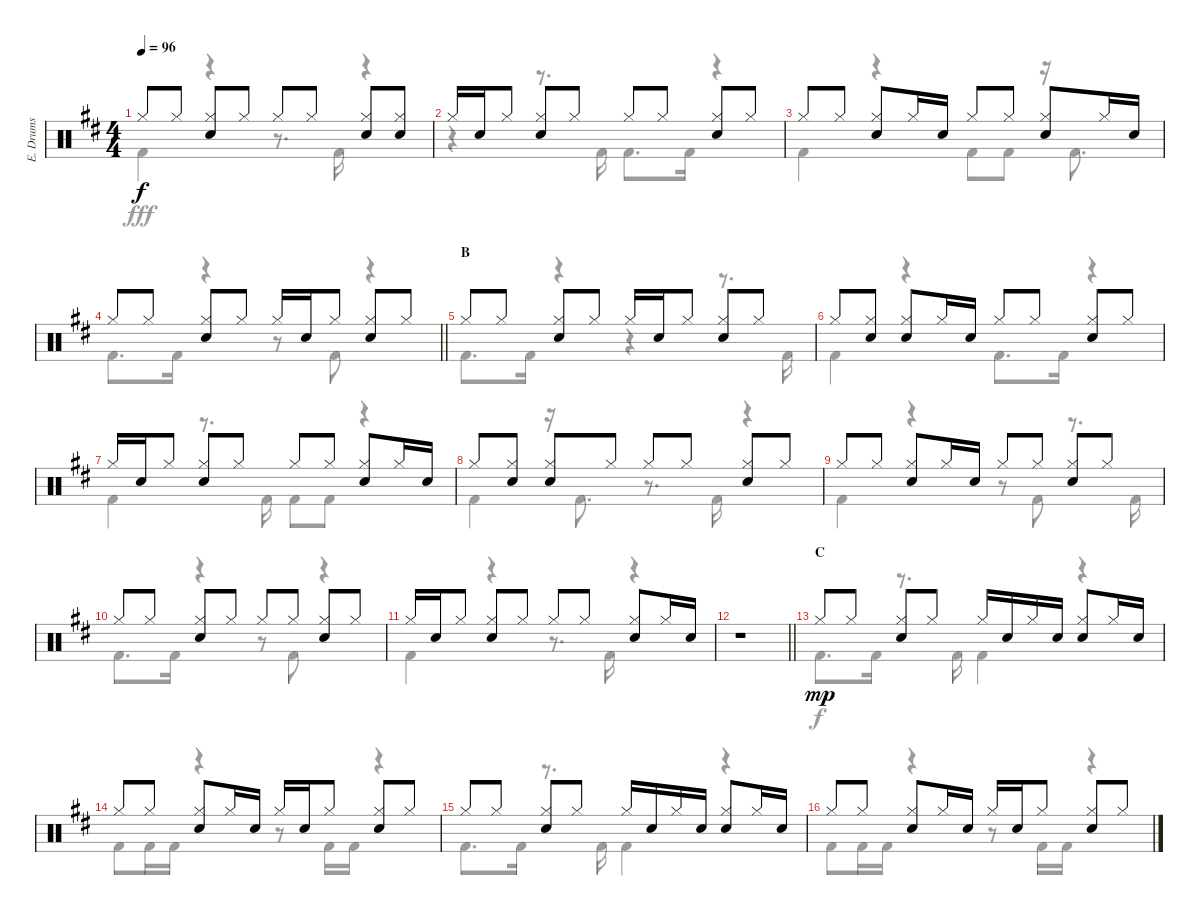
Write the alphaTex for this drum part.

\track ("E. Drums" "E. Drums") {instrument percussion}
\staff {score}
\articulation defaults
\voice
\ts (4 4)
\tempo 96
\clef neutral
\ks d "Hi-Hat (closed)".8{dy f} "Hi-Hat (closed)".8
("Hi-Hat (closed)" "Electric Snare (hit)").8 "Hi-Hat (closed)".8 "Hi-Hat (closed)".8 "Hi-Hat (closed)".8 ("Hi-Hat (closed)" "Electric Snare (hit)").8 ("Hi-Hat (closed)" "Electric Snare (hit)").8 |
"Hi-Hat (closed)".16 "Electric Snare (hit)".16 "Hi-Hat (closed)".8 ("Hi-Hat (closed)" "Electric Snare (hit)").8 "Hi-Hat (closed)".8 "Hi-Hat (closed)".8 "Hi-Hat (closed)".8 ("Hi-Hat (closed)" "Electric Snare (hit)").8 "Hi-Hat (closed)".8 |
"Hi-Hat (closed)".8 "Hi-Hat (closed)".8 ("Hi-Hat (closed)" "Electric Snare (hit)").8 "Hi-Hat (closed)".16 "Electric Snare (hit)".16 "Hi-Hat (closed)".8 "Hi-Hat (closed)".8 ("Hi-Hat (closed)" "Electric Snare (hit)").8 "Hi-Hat (closed)".16 "Electric Snare (hit)".16 |
\barLineRight lightlight "Hi-Hat (closed)".8 "Hi-Hat (closed)".8
("Hi-Hat (closed)" "Electric Snare (hit)").8 "Hi-Hat (closed)".8 "Hi-Hat (closed)".16 "Electric Snare (hit)".16 "Hi-Hat (closed)".8 ("Hi-Hat (closed)" "Electric Snare (hit)").8 "Hi-Hat (closed)".8 |
\section ("" "B")
"Hi-Hat (closed)".8 "Hi-Hat (closed)".8 ("Hi-Hat (closed)" "Electric Snare (hit)").8 "Hi-Hat (closed)".8 "Hi-Hat (closed)".16 "Electric Snare (hit)".16 "Hi-Hat (closed)".8 ("Hi-Hat (closed)" "Electric Snare (hit)").8 "Hi-Hat (closed)".8 |
"Hi-Hat (closed)".8 ("Hi-Hat (closed)" "Electric Snare (hit)").8 ("Hi-Hat (closed)" "Electric Snare (hit)").8 "Hi-Hat (closed)".16 "Electric Snare (hit)".16 "Hi-Hat (closed)".8 "Hi-Hat (closed)".8 ("Hi-Hat (closed)" "Electric Snare (hit)").8 "Hi-Hat (closed)".8 |
"Hi-Hat (closed)".16 "Electric Snare (hit)".16 "Hi-Hat (closed)".8 ("Hi-Hat (closed)" "Electric Snare (hit)").8 "Hi-Hat (closed)".8 "Hi-Hat (closed)".8 "Hi-Hat (closed)".8 ("Hi-Hat (closed)" "Electric Snare (hit)").8 "Hi-Hat (closed)".16 "Electric Snare (hit)".16 |
"Hi-Hat (closed)".8 ("Hi-Hat (closed)" "Electric Snare (hit)").8 ("Hi-Hat (closed)" "Electric Snare (hit)").8 "Hi-Hat (closed)".8 "Hi-Hat (closed)".8 "Hi-Hat (closed)".8 ("Hi-Hat (closed)" "Electric Snare (hit)").8 "Hi-Hat (closed)".8 |
"Hi-Hat (closed)".8 "Hi-Hat (closed)".8 ("Hi-Hat (closed)" "Electric Snare (hit)").8 "Hi-Hat (closed)".16 "Electric Snare (hit)".16 "Hi-Hat (closed)".8 "Hi-Hat (closed)".8 ("Hi-Hat (closed)" "Electric Snare (hit)").8 "Hi-Hat (closed)".8 |
"Hi-Hat (closed)".8 "Hi-Hat (closed)".8 ("Hi-Hat (closed)" "Electric Snare (hit)").8 "Hi-Hat (closed)".8 "Hi-Hat (closed)".8 "Hi-Hat (closed)".8 ("Hi-Hat (closed)" "Electric Snare (hit)").8 "Hi-Hat (closed)".8 |
"Hi-Hat (closed)".16 "Electric Snare (hit)".16 "Hi-Hat (closed)".8 ("Hi-Hat (closed)" "Electric Snare (hit)").8 "Hi-Hat (closed)".8 "Hi-Hat (closed)".8 "Hi-Hat (closed)".8 ("Hi-Hat (closed)" "Electric Snare (hit)").8 "Hi-Hat (closed)".16 "Electric Snare (hit)".16 |
\barLineRight lightlight
r.1 |
\section ("" "C")
"Hi-Hat (closed)".8{dy mp} "Hi-Hat (closed)".8 ("Hi-Hat (closed)" "Electric Snare (hit)").8 "Hi-Hat (closed)".8 "Hi-Hat (closed)".16 "Electric Snare (hit)".16 "Hi-Hat (closed)".16 "Electric Snare (hit)".16 ("Hi-Hat (closed)" "Electric Snare (hit)").8 "Hi-Hat (closed)".16 "Electric Snare (hit)".16 |
"Hi-Hat (closed)".8 "Hi-Hat (closed)".8 ("Hi-Hat (closed)" "Electric Snare (hit)").8 "Hi-Hat (closed)".16 "Electric Snare (hit)".16 "Hi-Hat (closed)".16 "Electric Snare (hit)".16 "Hi-Hat (closed)".8 ("Hi-Hat (closed)" "Electric Snare (hit)").8 "Hi-Hat (closed)".8 |
"Hi-Hat (closed)".8 "Hi-Hat (closed)".8 ("Hi-Hat (closed)" "Electric Snare (hit)").8 "Hi-Hat (closed)".8 "Hi-Hat (closed)".16 "Electric Snare (hit)".16 "Hi-Hat (closed)".16 "Electric Snare (hit)".16 ("Hi-Hat (closed)" "Electric Snare (hit)").8 "Hi-Hat (closed)".16 "Electric Snare (hit)".16 |
"Hi-Hat (closed)".8 "Hi-Hat (closed)".8 ("Hi-Hat (closed)" "Electric Snare (hit)").8 "Hi-Hat (closed)".16 "Electric Snare (hit)".16 "Hi-Hat (closed)".16 "Electric Snare (hit)".16 "Hi-Hat (closed)".8 ("Hi-Hat (closed)" "Electric Snare (hit)").8 "Hi-Hat (closed)".8
\voice
\clef neutral
\ottava regular
\simile none
\ks d "Kick (hit) 2".4{dy fff}
r.4 r.8{d} "Kick (hit) 2".16 r.4 |
r.4 r.8{d} "Kick (hit) 2".16 "Kick (hit) 2".8{d} "Kick (hit) 2".16 r.4 |
"Kick (hit) 2".4 r.4 "Kick (hit) 2".8 "Kick (hit) 2".8 r.16 "Kick (hit) 2".8{d} |
\barLineRight lightlight "Kick (hit) 2".8{d} "Kick (hit) 2".16
r.4 r.8 "Kick (hit) 2".8 r.4 |
"Kick (hit) 2".8{d} "Kick (hit) 2".16 r.4 r.4 r.8{d} "Kick (hit) 2".16 |
"Kick (hit) 2".4 r.4 "Kick (hit) 2".8{d} "Kick (hit) 2".16 r.4 |
"Kick (hit) 2".4 r.8{d} "Kick (hit) 2".16 "Kick (hit) 2".8 "Kick (hit) 2".8 r.4 |
"Kick (hit) 2".4 r.16 "Kick (hit) 2".8{d} r.8{d} "Kick (hit) 2".16 r.4 |
"Kick (hit) 2".4 r.4 r.8 "Kick (hit) 2".8 r.8{d} "Kick (hit) 2".16 |
"Kick (hit) 2".8{d} "Kick (hit) 2".16 r.4 r.8 "Kick (hit) 2".8 r.4 |
"Kick (hit) 2".4 r.4 r.8{d} "Kick (hit) 2".16 r.4 |
\barLineRight lightlight
r.1 |
"Kick (hit) 2".8{d dy f} "Kick (hit) 2".16 r.8{d} "Kick (hit) 2".16 "Kick (hit) 2".4 r.4 |
"Kick (hit) 2".8 "Kick (hit) 2".16 "Kick (hit) 2".16 r.4 r.8 "Kick (hit) 2".16 "Kick (hit) 2".16 r.4 |
"Kick (hit) 2".8{d} "Kick (hit) 2".16 r.8{d} "Kick (hit) 2".16 "Kick (hit) 2".4 r.4 |
"Kick (hit) 2".8 "Kick (hit) 2".16 "Kick (hit) 2".16 r.4 r.8 "Kick (hit) 2".16 "Kick (hit) 2".16 r.4
